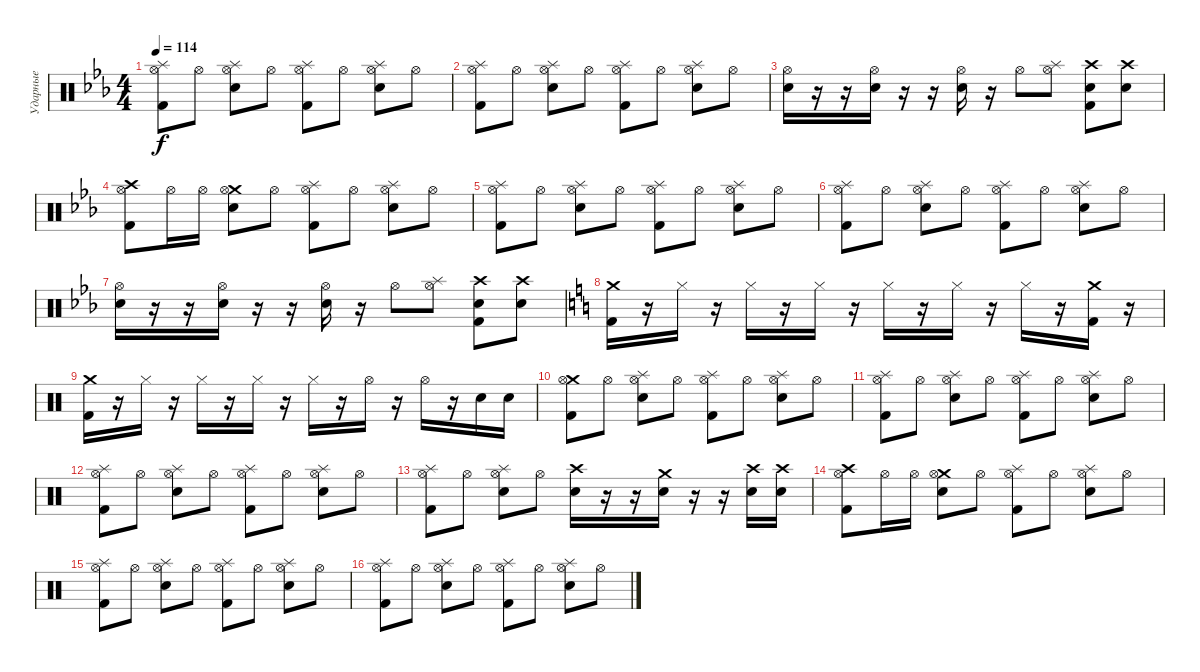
\track ("Ударные" "Ударные") {instrument percussion}
\staff {score}
\articulation defaults
\ts (4 4)
\tempo 114
\clef neutral
\ks eb
("Splash (hit)" "Hi-Hat (open)" "Kick (hit) 2").8{dy f} "Hi-Hat (open)".8 ("Splash (hit)" "Hi-Hat (open)" "Snare (hit) 2").8 "Hi-Hat (open)".8 ("Splash (hit)" "Hi-Hat (open)" "Kick (hit) 2").8 "Hi-Hat (open)".8 ("Splash (hit)" "Hi-Hat (open)" "Snare (hit) 2").8 "Hi-Hat (open)".8 |
("Splash (hit)" "Hi-Hat (open)" "Kick (hit) 2").8 "Hi-Hat (open)".8 ("Splash (hit)" "Hi-Hat (open)" "Snare (hit) 2").8 "Hi-Hat (open)".8 ("Splash (hit)" "Hi-Hat (open)" "Kick (hit) 2").8 "Hi-Hat (open)".8 ("Splash (hit)" "Hi-Hat (open)" "Snare (hit) 2").8 "Hi-Hat (open)".8 |
("Hi-Hat (open)" "Snare (hit) 2").16 r.16 r.16 ("Hi-Hat (open)" "Snare (hit) 2").16 r.16 r.16 ("Hi-Hat (open)" "Snare (hit) 2").16 r.16 "Hi-Hat (open)".8 ("Splash (hit)" "Hi-Hat (open)").8 ("Crash high (hit)" "Snare (hit) 2" "Kick (hit) 2").8 ("Crash high (hit)" "Snare (hit) 2").8 |
("Crash high (hit)" "Hi-Hat (open)" "Kick (hit) 2").8 "Hi-Hat (open)".16 "Hi-Hat (open)".16 ("Crash medium (hit)" "Hi-Hat (open)" "Snare (hit) 2").8 "Hi-Hat (open)".8 ("Splash (hit)" "Hi-Hat (open)" "Kick (hit) 2").8 "Hi-Hat (open)".8 ("Splash (hit)" "Hi-Hat (open)" "Snare (hit) 2").8 "Hi-Hat (open)".8 |
("Splash (hit)" "Hi-Hat (open)" "Kick (hit) 2").8 "Hi-Hat (open)".8 ("Splash (hit)" "Hi-Hat (open)" "Snare (hit) 2").8 "Hi-Hat (open)".8 ("Splash (hit)" "Hi-Hat (open)" "Kick (hit) 2").8 "Hi-Hat (open)".8 ("Splash (hit)" "Hi-Hat (open)" "Snare (hit) 2").8 "Hi-Hat (open)".8 |
("Splash (hit)" "Hi-Hat (open)" "Kick (hit) 2").8 "Hi-Hat (open)".8 ("Splash (hit)" "Hi-Hat (open)" "Snare (hit) 2").8 "Hi-Hat (open)".8 ("Splash (hit)" "Hi-Hat (open)" "Kick (hit) 2").8 "Hi-Hat (open)".8 ("Splash (hit)" "Hi-Hat (open)" "Snare (hit) 2").8 "Hi-Hat (open)".8 |
("Hi-Hat (open)" "Snare (hit) 2").16 r.16 r.16 ("Hi-Hat (open)" "Snare (hit) 2").16 r.16 r.16 ("Hi-Hat (open)" "Snare (hit) 2").16 r.16 "Hi-Hat (open)".8 ("Splash (hit)" "Hi-Hat (open)").8 ("Crash high (hit)" "Snare (hit) 2" "Kick (hit) 2").8 ("Crash high (hit)" "Snare (hit) 2").8 |
\ks c
("Kick (hit) 2" "Crash medium (hit)").16 r.16 "Hi-Hat (closed)".16 r.16 "Hi-Hat (closed)".16 r.16 "Hi-Hat (closed)".16 r.16 "Hi-Hat (closed)".16 r.16 "Hi-Hat (closed)".16 r.16 "Hi-Hat (closed)".16 r.16 ("Crash medium (hit)" "Kick (hit) 2").16 r.16 |
("Kick (hit) 2" "Crash medium (hit)").16 r.16 "Hi-Hat (closed)".16 r.16 "Hi-Hat (closed)".16 r.16 "Hi-Hat (closed)".16 r.16 "Hi-Hat (closed)".16 r.16 "Hi-Hat (open)".16 r.16 "Hi-Hat (open)".16 r.16 "Snare (hit) 2".16 "Snare (hit) 2".16 |
("Crash medium (hit)" "Hi-Hat (open)" "Kick (hit) 2").8 "Hi-Hat (open)".8 ("Splash (hit)" "Hi-Hat (open)" "Snare (hit) 2").8 "Hi-Hat (open)".8 ("Splash (hit)" "Hi-Hat (open)" "Kick (hit) 2").8 "Hi-Hat (open)".8 ("Splash (hit)" "Hi-Hat (open)" "Snare (hit) 2").8 "Hi-Hat (open)".8 |
("Splash (hit)" "Hi-Hat (open)" "Kick (hit) 2").8 "Hi-Hat (open)".8 ("Splash (hit)" "Hi-Hat (open)" "Snare (hit) 2").8 "Hi-Hat (open)".8 ("Splash (hit)" "Hi-Hat (open)" "Kick (hit) 2").8 "Hi-Hat (open)".8 ("Splash (hit)" "Hi-Hat (open)" "Snare (hit) 2").8 "Hi-Hat (open)".8 |
("Splash (hit)" "Hi-Hat (open)" "Kick (hit) 2").8 "Hi-Hat (open)".8 ("Splash (hit)" "Hi-Hat (open)" "Snare (hit) 2").8 "Hi-Hat (open)".8 ("Splash (hit)" "Hi-Hat (open)" "Kick (hit) 2").8 "Hi-Hat (open)".8 ("Splash (hit)" "Hi-Hat (open)" "Snare (hit) 2").8 "Hi-Hat (open)".8 |
("Splash (hit)" "Hi-Hat (open)" "Kick (hit) 2").8 "Hi-Hat (open)".8 ("Splash (hit)" "Hi-Hat (open)" "Snare (hit) 2").8 "Hi-Hat (open)".8 ("Snare (hit) 2" "Crash high (hit)").16 r.16 r.16 ("Snare (hit) 2" "Crash medium (hit)").16 r.16 r.16 ("Snare (hit) 2" "Crash high (hit)").16 ("Snare (hit) 2" "Crash high (hit)").16 |
("Crash high (hit)" "Hi-Hat (open)" "Kick (hit) 2").8 "Hi-Hat (open)".16 "Hi-Hat (open)".16 ("Crash medium (hit)" "Hi-Hat (open)" "Snare (hit) 2").8 "Hi-Hat (open)".8 ("Splash (hit)" "Hi-Hat (open)" "Kick (hit) 2").8 "Hi-Hat (open)".8 ("Splash (hit)" "Hi-Hat (open)" "Snare (hit) 2").8 "Hi-Hat (open)".8 |
("Splash (hit)" "Hi-Hat (open)" "Kick (hit) 2").8 "Hi-Hat (open)".8 ("Splash (hit)" "Hi-Hat (open)" "Snare (hit) 2").8 "Hi-Hat (open)".8 ("Splash (hit)" "Hi-Hat (open)" "Kick (hit) 2").8 "Hi-Hat (open)".8 ("Splash (hit)" "Hi-Hat (open)" "Snare (hit) 2").8 "Hi-Hat (open)".8 |
("Splash (hit)" "Hi-Hat (open)" "Kick (hit) 2").8 "Hi-Hat (open)".8 ("Splash (hit)" "Hi-Hat (open)" "Snare (hit) 2").8 "Hi-Hat (open)".8 ("Splash (hit)" "Hi-Hat (open)" "Kick (hit) 2").8 "Hi-Hat (open)".8 ("Splash (hit)" "Hi-Hat (open)" "Snare (hit) 2").8 "Hi-Hat (open)".8
